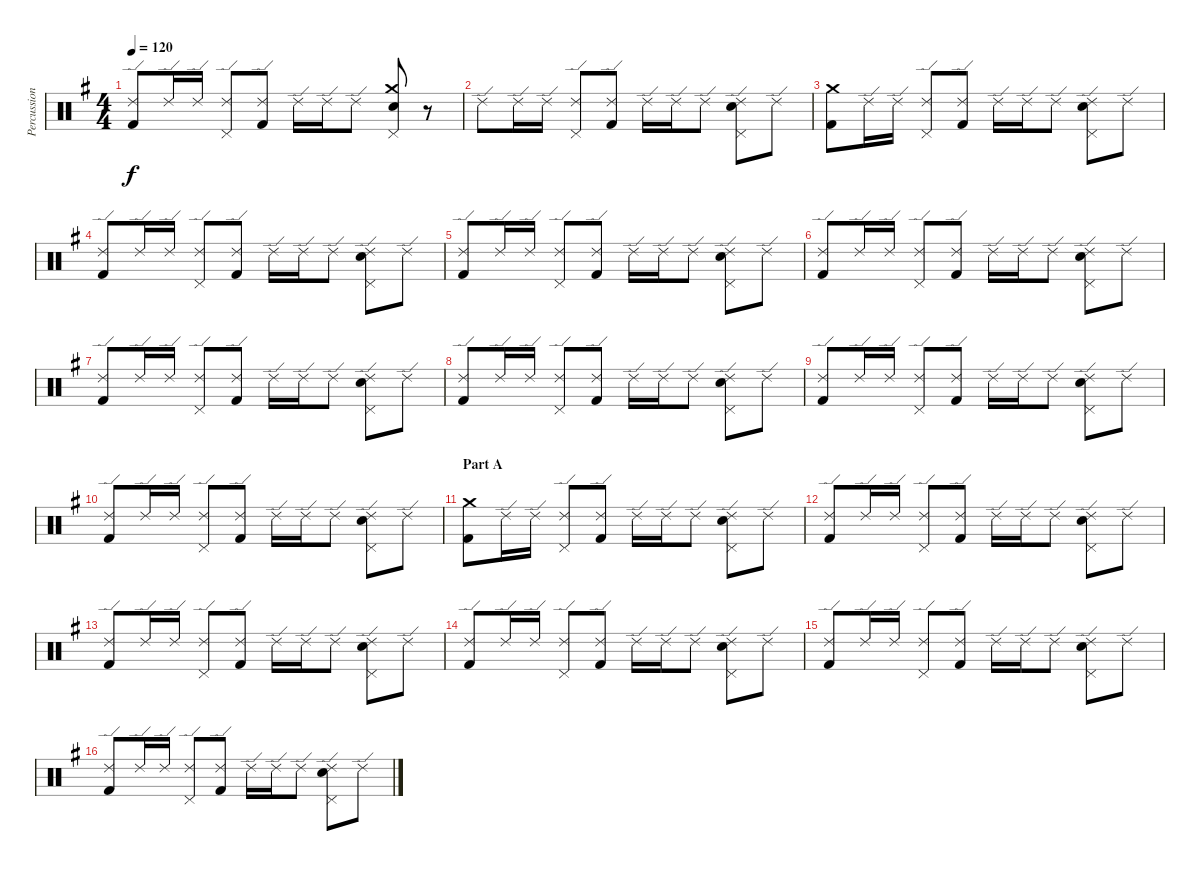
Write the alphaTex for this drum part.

\track ("Percussion" "Percussion") {instrument percussion}
\staff {score}
\articulation defaults
\ts (4 4)
\tempo 120
\clef neutral
\ks eminor
("Ride (edge) 2" "Kick (hit) 2").8{dy f} "Ride (edge) 2".16 "Ride (edge) 2".16 ("Ride (edge) 2" "Pedal Hi-Hat (hit)").8 ("Ride (edge) 2" "Kick (hit) 2").8 "Ride (edge) 2".16 "Ride (edge) 2".16 "Ride (edge) 2".8 ("Crash medium (hit)" "Pedal Hi-Hat (hit)" "Snare (hit) 2").8 r.8 |
"Ride (edge) 2".8 "Ride (edge) 2".16 "Ride (edge) 2".16 ("Ride (edge) 2" "Pedal Hi-Hat (hit)").8 ("Ride (edge) 2" "Kick (hit) 2").8 "Ride (edge) 2".16 "Ride (edge) 2".16 "Ride (edge) 2".8 ("Ride (edge) 2" "Pedal Hi-Hat (hit)" "Snare (hit) 2").8 "Ride (edge) 2".8 |
("Crash medium (hit)" "Kick (hit) 2").8 "Ride (edge) 2".16 "Ride (edge) 2".16 ("Ride (edge) 2" "Pedal Hi-Hat (hit)").8 ("Ride (edge) 2" "Kick (hit) 2").8 "Ride (edge) 2".16 "Ride (edge) 2".16 "Ride (edge) 2".8 ("Ride (edge) 2" "Pedal Hi-Hat (hit)" "Snare (hit) 2").8 "Ride (edge) 2".8 |
("Ride (edge) 2" "Kick (hit) 2").8 "Ride (edge) 2".16 "Ride (edge) 2".16 ("Ride (edge) 2" "Pedal Hi-Hat (hit)").8 ("Ride (edge) 2" "Kick (hit) 2").8 "Ride (edge) 2".16 "Ride (edge) 2".16 "Ride (edge) 2".8 ("Ride (edge) 2" "Pedal Hi-Hat (hit)" "Snare (hit) 2").8 "Ride (edge) 2".8 |
("Ride (edge) 2" "Kick (hit) 2").8 "Ride (edge) 2".16 "Ride (edge) 2".16 ("Ride (edge) 2" "Pedal Hi-Hat (hit)").8 ("Ride (edge) 2" "Kick (hit) 2").8 "Ride (edge) 2".16 "Ride (edge) 2".16 "Ride (edge) 2".8 ("Ride (edge) 2" "Pedal Hi-Hat (hit)" "Snare (hit) 2").8 "Ride (edge) 2".8 |
("Ride (edge) 2" "Kick (hit) 2").8 "Ride (edge) 2".16 "Ride (edge) 2".16 ("Ride (edge) 2" "Pedal Hi-Hat (hit)").8 ("Ride (edge) 2" "Kick (hit) 2").8 "Ride (edge) 2".16 "Ride (edge) 2".16 "Ride (edge) 2".8 ("Ride (edge) 2" "Pedal Hi-Hat (hit)" "Snare (hit) 2").8 "Ride (edge) 2".8 |
("Ride (edge) 2" "Kick (hit) 2").8 "Ride (edge) 2".16 "Ride (edge) 2".16 ("Ride (edge) 2" "Pedal Hi-Hat (hit)").8 ("Ride (edge) 2" "Kick (hit) 2").8 "Ride (edge) 2".16 "Ride (edge) 2".16 "Ride (edge) 2".8 ("Ride (edge) 2" "Pedal Hi-Hat (hit)" "Snare (hit) 2").8 "Ride (edge) 2".8 |
("Ride (edge) 2" "Kick (hit) 2").8 "Ride (edge) 2".16 "Ride (edge) 2".16 ("Ride (edge) 2" "Pedal Hi-Hat (hit)").8 ("Ride (edge) 2" "Kick (hit) 2").8 "Ride (edge) 2".16 "Ride (edge) 2".16 "Ride (edge) 2".8 ("Ride (edge) 2" "Pedal Hi-Hat (hit)" "Snare (hit) 2").8 "Ride (edge) 2".8 |
("Ride (edge) 2" "Kick (hit) 2").8 "Ride (edge) 2".16 "Ride (edge) 2".16 ("Ride (edge) 2" "Pedal Hi-Hat (hit)").8 ("Ride (edge) 2" "Kick (hit) 2").8 "Ride (edge) 2".16 "Ride (edge) 2".16 "Ride (edge) 2".8 ("Ride (edge) 2" "Pedal Hi-Hat (hit)" "Snare (hit) 2").8 "Ride (edge) 2".8 |
("Ride (edge) 2" "Kick (hit) 2").8 "Ride (edge) 2".16 "Ride (edge) 2".16 ("Ride (edge) 2" "Pedal Hi-Hat (hit)").8 ("Ride (edge) 2" "Kick (hit) 2").8 "Ride (edge) 2".16 "Ride (edge) 2".16 "Ride (edge) 2".8 ("Ride (edge) 2" "Pedal Hi-Hat (hit)" "Snare (hit) 2").8 "Ride (edge) 2".8 |
\section ("" "Part A")
("Crash medium (hit)" "Kick (hit) 2").8 "Ride (edge) 2".16 "Ride (edge) 2".16 ("Ride (edge) 2" "Pedal Hi-Hat (hit)").8 ("Ride (edge) 2" "Kick (hit) 2").8 "Ride (edge) 2".16 "Ride (edge) 2".16 "Ride (edge) 2".8 ("Ride (edge) 2" "Pedal Hi-Hat (hit)" "Snare (hit) 2").8 "Ride (edge) 2".8 |
("Ride (edge) 2" "Kick (hit) 2").8 "Ride (edge) 2".16 "Ride (edge) 2".16 ("Ride (edge) 2" "Pedal Hi-Hat (hit)").8 ("Ride (edge) 2" "Kick (hit) 2").8 "Ride (edge) 2".16 "Ride (edge) 2".16 "Ride (edge) 2".8 ("Ride (edge) 2" "Pedal Hi-Hat (hit)" "Snare (hit) 2").8 "Ride (edge) 2".8 |
("Ride (edge) 2" "Kick (hit) 2").8 "Ride (edge) 2".16 "Ride (edge) 2".16 ("Ride (edge) 2" "Pedal Hi-Hat (hit)").8 ("Ride (edge) 2" "Kick (hit) 2").8 "Ride (edge) 2".16 "Ride (edge) 2".16 "Ride (edge) 2".8 ("Ride (edge) 2" "Pedal Hi-Hat (hit)" "Snare (hit) 2").8 "Ride (edge) 2".8 |
("Ride (edge) 2" "Kick (hit) 2").8 "Ride (edge) 2".16 "Ride (edge) 2".16 ("Ride (edge) 2" "Pedal Hi-Hat (hit)").8 ("Ride (edge) 2" "Kick (hit) 2").8 "Ride (edge) 2".16 "Ride (edge) 2".16 "Ride (edge) 2".8 ("Ride (edge) 2" "Pedal Hi-Hat (hit)" "Snare (hit) 2").8 "Ride (edge) 2".8 |
("Ride (edge) 2" "Kick (hit) 2").8 "Ride (edge) 2".16 "Ride (edge) 2".16 ("Ride (edge) 2" "Pedal Hi-Hat (hit)").8 ("Ride (edge) 2" "Kick (hit) 2").8 "Ride (edge) 2".16 "Ride (edge) 2".16 "Ride (edge) 2".8 ("Ride (edge) 2" "Pedal Hi-Hat (hit)" "Snare (hit) 2").8 "Ride (edge) 2".8 |
("Ride (edge) 2" "Kick (hit) 2").8 "Ride (edge) 2".16 "Ride (edge) 2".16 ("Ride (edge) 2" "Pedal Hi-Hat (hit)").8 ("Ride (edge) 2" "Kick (hit) 2").8 "Ride (edge) 2".16 "Ride (edge) 2".16 "Ride (edge) 2".8 ("Ride (edge) 2" "Pedal Hi-Hat (hit)" "Snare (hit) 2").8 "Ride (edge) 2".8
